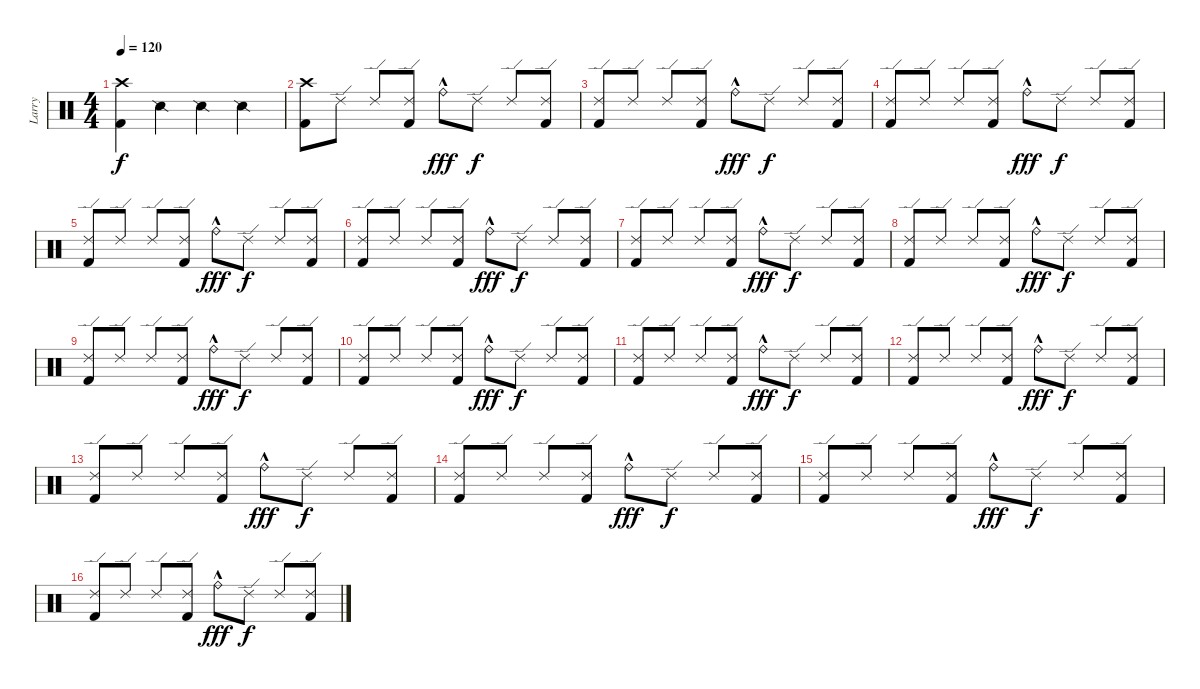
\track ("Larry" "Larry") {instrument percussion}
\staff {score}
\articulation defaults
\ts (4 4)
\tempo 120
\clef neutral
\ks c
("Crash high (hit)" "Kick (hit) 2").4{dy f} "Snare (side stick) 2".4 "Snare (side stick) 2".4 "Snare (side stick) 2".4 |
("Crash high (hit)" "Kick (hit) 2").8 "Ride (edge) 2".8 "Ride (edge) 2".8 ("Ride (edge) 2" "Kick (hit) 2").8 "Ride (bell)"{hac}.8{dy fff} "Ride (edge) 2".8{dy f} "Ride (edge) 2".8 ("Ride (edge) 2" "Kick (hit) 2").8 |
("Ride (edge) 2" "Kick (hit) 2").8 "Ride (edge) 2".8 "Ride (edge) 2".8 ("Ride (edge) 2" "Kick (hit) 2").8 "Ride (bell)"{hac}.8{dy fff} "Ride (edge) 2".8{dy f} "Ride (edge) 2".8 ("Ride (edge) 2" "Kick (hit) 2").8 |
("Ride (edge) 2" "Kick (hit) 2").8 "Ride (edge) 2".8 "Ride (edge) 2".8 ("Ride (edge) 2" "Kick (hit) 2").8 "Ride (bell)"{hac}.8{dy fff} "Ride (edge) 2".8{dy f} "Ride (edge) 2".8 ("Ride (edge) 2" "Kick (hit) 2").8 |
("Ride (edge) 2" "Kick (hit) 2").8 "Ride (edge) 2".8 "Ride (edge) 2".8 ("Ride (edge) 2" "Kick (hit) 2").8 "Ride (bell)"{hac}.8{dy fff} "Ride (edge) 2".8{dy f} "Ride (edge) 2".8 ("Ride (edge) 2" "Kick (hit) 2").8 |
("Ride (edge) 2" "Kick (hit) 2").8 "Ride (edge) 2".8 "Ride (edge) 2".8 ("Ride (edge) 2" "Kick (hit) 2").8 "Ride (bell)"{hac}.8{dy fff} "Ride (edge) 2".8{dy f} "Ride (edge) 2".8 ("Ride (edge) 2" "Kick (hit) 2").8 |
("Ride (edge) 2" "Kick (hit) 2").8 "Ride (edge) 2".8 "Ride (edge) 2".8 ("Ride (edge) 2" "Kick (hit) 2").8 "Ride (bell)"{hac}.8{dy fff} "Ride (edge) 2".8{dy f} "Ride (edge) 2".8 ("Ride (edge) 2" "Kick (hit) 2").8 |
("Ride (edge) 2" "Kick (hit) 2").8 "Ride (edge) 2".8 "Ride (edge) 2".8 ("Ride (edge) 2" "Kick (hit) 2").8 "Ride (bell)"{hac}.8{dy fff} "Ride (edge) 2".8{dy f} "Ride (edge) 2".8 ("Ride (edge) 2" "Kick (hit) 2").8 |
("Ride (edge) 2" "Kick (hit) 2").8 "Ride (edge) 2".8 "Ride (edge) 2".8 ("Ride (edge) 2" "Kick (hit) 2").8 "Ride (bell)"{hac}.8{dy fff} "Ride (edge) 2".8{dy f} "Ride (edge) 2".8 ("Ride (edge) 2" "Kick (hit) 2").8 |
("Ride (edge) 2" "Kick (hit) 2").8 "Ride (edge) 2".8 "Ride (edge) 2".8 ("Ride (edge) 2" "Kick (hit) 2").8 "Ride (bell)"{hac}.8{dy fff} "Ride (edge) 2".8{dy f} "Ride (edge) 2".8 ("Ride (edge) 2" "Kick (hit) 2").8 |
("Ride (edge) 2" "Kick (hit) 2").8 "Ride (edge) 2".8 "Ride (edge) 2".8 ("Ride (edge) 2" "Kick (hit) 2").8 "Ride (bell)"{hac}.8{dy fff} "Ride (edge) 2".8{dy f} "Ride (edge) 2".8 ("Ride (edge) 2" "Kick (hit) 2").8 |
("Ride (edge) 2" "Kick (hit) 2").8 "Ride (edge) 2".8 "Ride (edge) 2".8 ("Ride (edge) 2" "Kick (hit) 2").8 "Ride (bell)"{hac}.8{dy fff} "Ride (edge) 2".8{dy f} "Ride (edge) 2".8 ("Ride (edge) 2" "Kick (hit) 2").8 |
("Ride (edge) 2" "Kick (hit) 2").8 "Ride (edge) 2".8 "Ride (edge) 2".8 ("Ride (edge) 2" "Kick (hit) 2").8 "Ride (bell)"{hac}.8{dy fff} "Ride (edge) 2".8{dy f} "Ride (edge) 2".8 ("Ride (edge) 2" "Kick (hit) 2").8 |
("Ride (edge) 2" "Kick (hit) 2").8 "Ride (edge) 2".8 "Ride (edge) 2".8 ("Ride (edge) 2" "Kick (hit) 2").8 "Ride (bell)"{hac}.8{dy fff} "Ride (edge) 2".8{dy f} "Ride (edge) 2".8 ("Ride (edge) 2" "Kick (hit) 2").8 |
("Ride (edge) 2" "Kick (hit) 2").8 "Ride (edge) 2".8 "Ride (edge) 2".8 ("Ride (edge) 2" "Kick (hit) 2").8 "Ride (bell)"{hac}.8{dy fff} "Ride (edge) 2".8{dy f} "Ride (edge) 2".8 ("Ride (edge) 2" "Kick (hit) 2").8 |
("Ride (edge) 2" "Kick (hit) 2").8 "Ride (edge) 2".8 "Ride (edge) 2".8 ("Ride (edge) 2" "Kick (hit) 2").8 "Ride (bell)"{hac}.8{dy fff} "Ride (edge) 2".8{dy f} "Ride (edge) 2".8 ("Ride (edge) 2" "Kick (hit) 2").8
